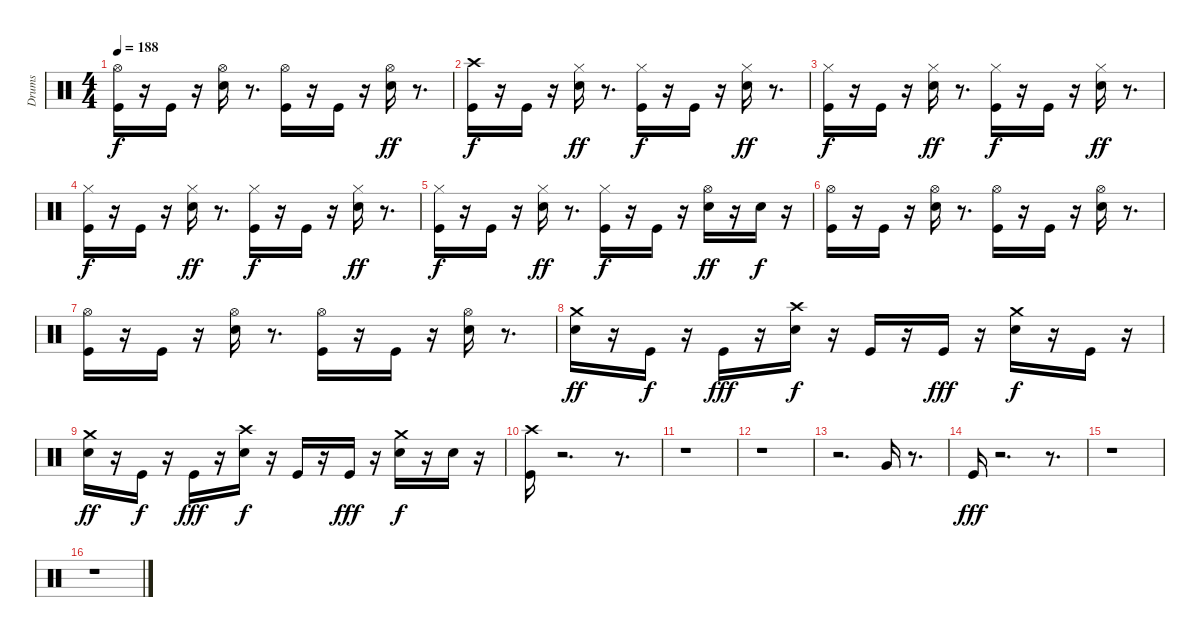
\track ("Drums" "Drums") {instrument percussion}
\staff {score}
\articulation defaults
\ts (4 4)
\tempo 188
\clef neutral
\ks c
("Hi-Hat (open)" "Kick (hit)").16{dy f} r.16 "Kick (hit)".16 r.16 ("Hi-Hat (open)" "Snare (hit) 2").16 r.8{d} ("Hi-Hat (open)" "Kick (hit)").16 r.16 "Kick (hit)".16 r.16 ("Snare (hit) 2" "Hi-Hat (open)").16{dy ff} r.8{d} |
("Crash high (hit)" "Kick (hit)").16{dy f} r.16 "Kick (hit)".16 r.16 ("Snare (hit) 2" "Hi-Hat (closed)").16{dy ff} r.8{d} ("Hi-Hat (closed)" "Kick (hit)").16{dy f} r.16 "Kick (hit)".16 r.16 ("Snare (hit) 2" "Hi-Hat (closed)").16{dy ff} r.8{d} |
("Hi-Hat (closed)" "Kick (hit)").16{dy f} r.16 "Kick (hit)".16 r.16 ("Snare (hit) 2" "Hi-Hat (closed)").16{dy ff} r.8{d} ("Hi-Hat (closed)" "Kick (hit)").16{dy f} r.16 "Kick (hit)".16 r.16 ("Snare (hit) 2" "Hi-Hat (closed)").16{dy ff} r.8{d} |
("Hi-Hat (closed)" "Kick (hit)").16{dy f} r.16 "Kick (hit)".16 r.16 ("Snare (hit) 2" "Hi-Hat (closed)").16{dy ff} r.8{d} ("Hi-Hat (closed)" "Kick (hit)").16{dy f} r.16 "Kick (hit)".16 r.16 ("Snare (hit) 2" "Hi-Hat (closed)").16{dy ff} r.8{d} |
("Hi-Hat (closed)" "Kick (hit)").16{dy f} r.16 "Kick (hit)".16 r.16 ("Snare (hit) 2" "Hi-Hat (closed)").16{dy ff} r.8{d} ("Hi-Hat (closed)" "Kick (hit)").16{dy f} r.16 "Kick (hit)".16 r.16 ("Snare (hit) 2" "Hi-Hat (open)").16{dy ff} r.16 "Snare (hit) 2".16{dy f} r.16 |
("Hi-Hat (open)" "Kick (hit)").16 r.16 "Kick (hit)".16 r.16 ("Hi-Hat (open)" "Snare (hit) 2").16 r.8{d} ("Hi-Hat (open)" "Kick (hit)").16 r.16 "Kick (hit)".16 r.16 ("Hi-Hat (open)" "Snare (hit) 2").16 r.8{d} |
("Hi-Hat (open)" "Kick (hit)").16 r.16 "Kick (hit)".16 r.16 ("Hi-Hat (open)" "Snare (hit) 2").16 r.8{d} ("Hi-Hat (open)" "Kick (hit)").16 r.16 "Kick (hit)".16 r.16 ("Hi-Hat (open)" "Snare (hit) 2").16 r.8{d} |
("Snare (hit) 2" "Crash medium (hit)").16{dy ff} r.16 "Kick (hit)".16{dy f} r.16 "Kick (hit)".16{dy fff} r.16 ("Crash high (hit)" "Snare (hit) 2").16{dy f} r.16 "Kick (hit)".16 r.16 "Kick (hit)".16{dy fff} r.16 ("Crash medium (hit)" "Snare (hit) 2").16{dy f} r.16 "Kick (hit)".16 r.16 |
("Snare (hit) 2" "Crash medium (hit)").16{dy ff} r.16 "Kick (hit)".16{dy f} r.16 "Kick (hit)".16{dy fff} r.16 ("Crash high (hit)" "Snare (hit) 2").16{dy f} r.16 "Kick (hit)".16 r.16 "Kick (hit)".16{dy fff} r.16 ("Crash medium (hit)" "Snare (hit) 2").16{dy f} r.16 "Snare (hit) 2".16 r.16 |
("Crash high (hit)" "Kick (hit)").16 r.2{d} r.8{d} |
r.1 |
r.1 |
r.2{d} "Very Low Tom (hit)".16 r.8{d} |
"Kick (hit)".16{dy fff} r.2{d} r.8{d} |
r.1 |
r.1
